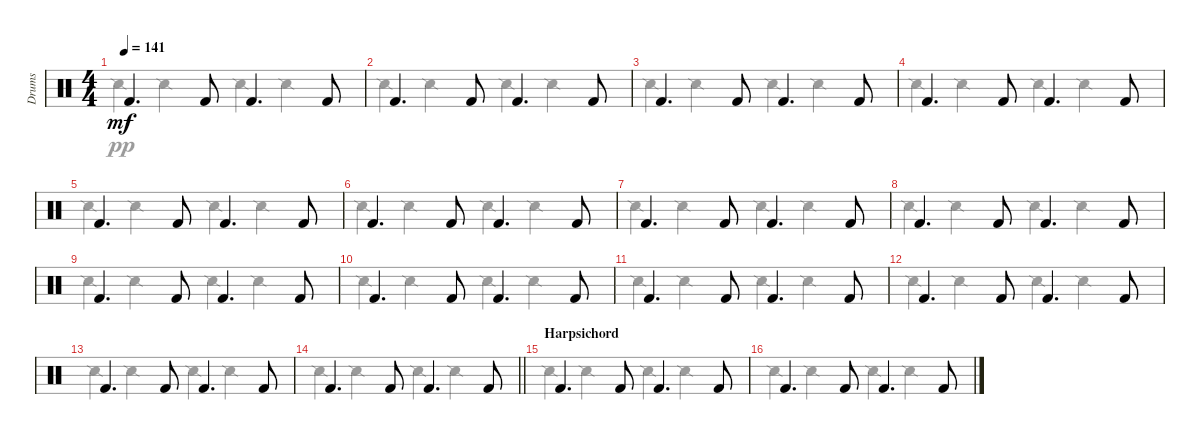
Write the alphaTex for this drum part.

\track ("Drums" "Drums") {instrument percussion}
\staff {score}
\articulation defaults
\voice
\ts (4 4)
\tempo 141
\clef neutral
\ks c "Kick (hit) 2".4{d dy mf} "Kick (hit) 2".8 "Kick (hit) 2".4{d} "Kick (hit) 2".8
|
"Kick (hit) 2".4{d} "Kick (hit) 2".8 "Kick (hit) 2".4{d} "Kick (hit) 2".8 |
"Kick (hit) 2".4{d} "Kick (hit) 2".8 "Kick (hit) 2".4{d} "Kick (hit) 2".8 |
"Kick (hit) 2".4{d} "Kick (hit) 2".8 "Kick (hit) 2".4{d} "Kick (hit) 2".8 |
"Kick (hit) 2".4{d} "Kick (hit) 2".8 "Kick (hit) 2".4{d} "Kick (hit) 2".8 |
"Kick (hit) 2".4{d} "Kick (hit) 2".8 "Kick (hit) 2".4{d} "Kick (hit) 2".8 |
"Kick (hit) 2".4{d} "Kick (hit) 2".8 "Kick (hit) 2".4{d} "Kick (hit) 2".8 |
"Kick (hit) 2".4{d} "Kick (hit) 2".8 "Kick (hit) 2".4{d} "Kick (hit) 2".8 |
"Kick (hit) 2".4{d} "Kick (hit) 2".8 "Kick (hit) 2".4{d} "Kick (hit) 2".8 |
"Kick (hit) 2".4{d} "Kick (hit) 2".8 "Kick (hit) 2".4{d} "Kick (hit) 2".8 |
"Kick (hit) 2".4{d} "Kick (hit) 2".8 "Kick (hit) 2".4{d} "Kick (hit) 2".8 |
"Kick (hit) 2".4{d} "Kick (hit) 2".8 "Kick (hit) 2".4{d} "Kick (hit) 2".8 |
"Kick (hit) 2".4{d} "Kick (hit) 2".8 "Kick (hit) 2".4{d} "Kick (hit) 2".8 |
\barLineRight lightlight "Kick (hit) 2".4{d} "Kick (hit) 2".8 "Kick (hit) 2".4{d} "Kick (hit) 2".8
|
\section ("" "Harpsichord")
"Kick (hit) 2".4{d} "Kick (hit) 2".8 "Kick (hit) 2".4{d} "Kick (hit) 2".8 |
"Kick (hit) 2".4{d} "Kick (hit) 2".8 "Kick (hit) 2".4{d} "Kick (hit) 2".8
\voice
\clef neutral
\ottava regular
\simile none
\ks c "Snare (side stick) 2".4{dy pp} "Snare (side stick) 2".4 "Snare (side stick) 2".4 "Snare (side stick) 2".4
|
"Snare (side stick) 2".4 "Snare (side stick) 2".4 "Snare (side stick) 2".4 "Snare (side stick) 2".4 |
"Snare (side stick) 2".4 "Snare (side stick) 2".4 "Snare (side stick) 2".4 "Snare (side stick) 2".4 |
"Snare (side stick) 2".4 "Snare (side stick) 2".4 "Snare (side stick) 2".4 "Snare (side stick) 2".4 |
"Snare (side stick) 2".4 "Snare (side stick) 2".4 "Snare (side stick) 2".4 "Snare (side stick) 2".4 |
"Snare (side stick) 2".4 "Snare (side stick) 2".4 "Snare (side stick) 2".4 "Snare (side stick) 2".4 |
"Snare (side stick) 2".4 "Snare (side stick) 2".4 "Snare (side stick) 2".4 "Snare (side stick) 2".4 |
"Snare (side stick) 2".4 "Snare (side stick) 2".4 "Snare (side stick) 2".4 "Snare (side stick) 2".4 |
"Snare (side stick) 2".4 "Snare (side stick) 2".4 "Snare (side stick) 2".4 "Snare (side stick) 2".4 |
"Snare (side stick) 2".4 "Snare (side stick) 2".4 "Snare (side stick) 2".4 "Snare (side stick) 2".4 |
"Snare (side stick) 2".4 "Snare (side stick) 2".4 "Snare (side stick) 2".4 "Snare (side stick) 2".4 |
"Snare (side stick) 2".4 "Snare (side stick) 2".4 "Snare (side stick) 2".4 "Snare (side stick) 2".4 |
"Snare (side stick) 2".4 "Snare (side stick) 2".4 "Snare (side stick) 2".4 "Snare (side stick) 2".4 |
\barLineRight lightlight "Snare (side stick) 2".4 "Snare (side stick) 2".4 "Snare (side stick) 2".4 "Snare (side stick) 2".4
|
"Snare (side stick) 2".4 "Snare (side stick) 2".4 "Snare (side stick) 2".4 "Snare (side stick) 2".4 |
"Snare (side stick) 2".4 "Snare (side stick) 2".4 "Snare (side stick) 2".4 "Snare (side stick) 2".4
